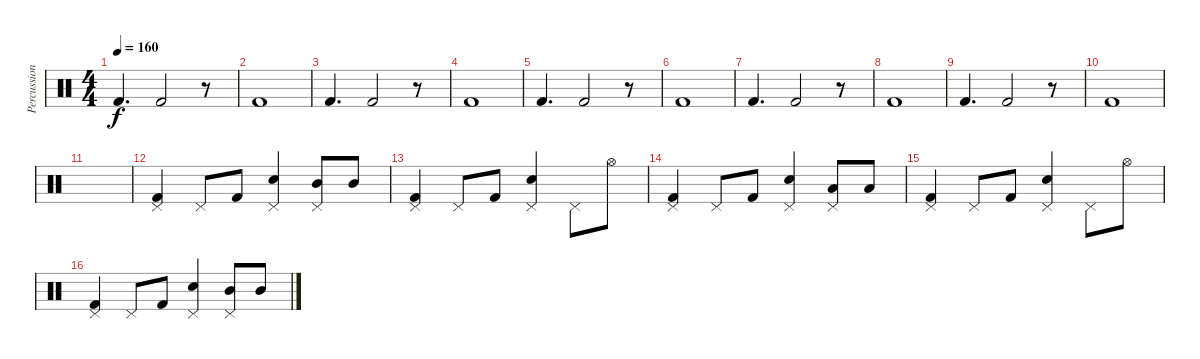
\track ("Percussion" "Percussion") {instrument percussion}
\staff {score}
\articulation defaults
\ts (4 4)
\tempo 160
\clef neutral
\ks c "Kick (hit) 2".4{d dy f} "Kick (hit) 2".2
r.8 |
"Kick (hit) 2".1 |
"Kick (hit) 2".4{d} "Kick (hit) 2".2 r.8 |
"Kick (hit) 2".1 |
"Kick (hit) 2".4{d} "Kick (hit) 2".2 r.8 |
"Kick (hit) 2".1 |
"Kick (hit) 2".4{d} "Kick (hit) 2".2 r.8 |
"Kick (hit) 2".1 |
"Kick (hit) 2".4{d} "Kick (hit) 2".2 r.8 |
"Kick (hit) 2".1 |
|
("Pedal Hi-Hat (hit)" "Kick (hit) 2").4 "Pedal Hi-Hat (hit)".8 "Kick (hit) 2".8 ("Snare (hit) 2" "Pedal Hi-Hat (hit)").4 ("Mid Tom (hit)" "Pedal Hi-Hat (hit)").8 "Mid Tom (hit)".8 |
("Pedal Hi-Hat (hit)" "Kick (hit) 2").4 "Pedal Hi-Hat (hit)".8 "Kick (hit) 2".8 ("Snare (hit) 2" "Pedal Hi-Hat (hit)").4 "Pedal Hi-Hat (hit)".8 "Hi-Hat (open)".8 |
("Pedal Hi-Hat (hit)" "Kick (hit) 2").4 "Pedal Hi-Hat (hit)".8 "Kick (hit) 2".8 ("Snare (hit) 2" "Pedal Hi-Hat (hit)").4 ("Low Tom (hit)" "Pedal Hi-Hat (hit)").8 "Low Tom (hit)".8 |
("Pedal Hi-Hat (hit)" "Kick (hit) 2").4 "Pedal Hi-Hat (hit)".8 "Kick (hit) 2".8 ("Snare (hit) 2" "Pedal Hi-Hat (hit)").4 "Pedal Hi-Hat (hit)".8 "Hi-Hat (open)".8 |
("Pedal Hi-Hat (hit)" "Kick (hit) 2").4 "Pedal Hi-Hat (hit)".8 "Kick (hit) 2".8 ("Snare (hit) 2" "Pedal Hi-Hat (hit)").4 ("Mid Tom (hit)" "Pedal Hi-Hat (hit)").8 "Mid Tom (hit)".8
